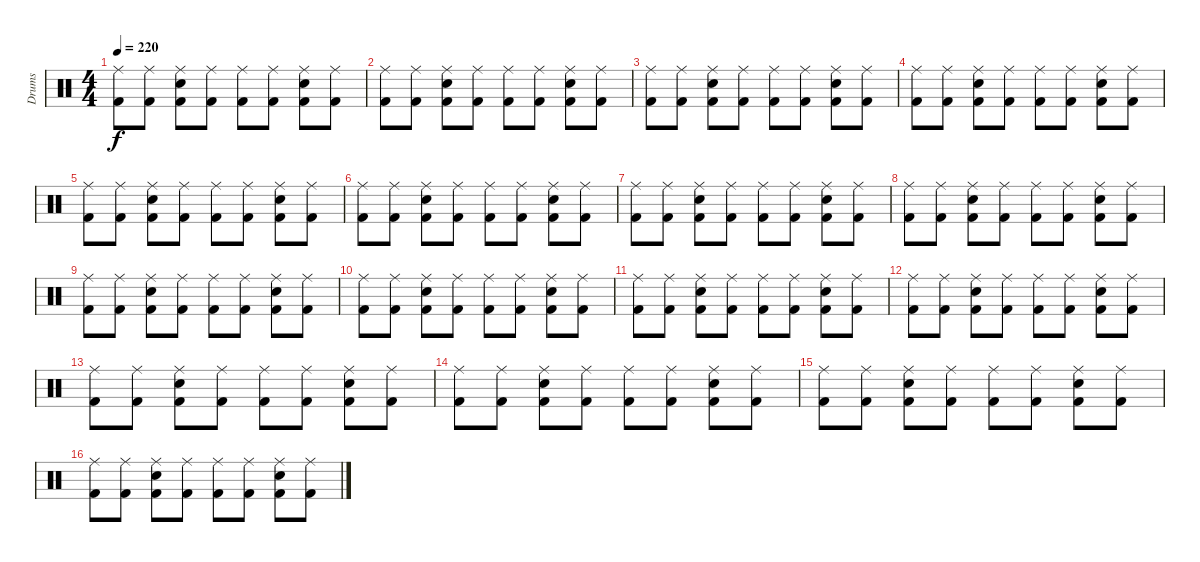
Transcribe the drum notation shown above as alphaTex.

\track ("Drums" "Drums") {instrument percussion}
\staff {score}
\articulation defaults
\ts (4 4)
\tempo 220
\clef neutral
\ks c
("Kick (hit) 2" "Ride (middle)").8{dy f} ("Kick (hit) 2" "Ride (middle)").8 ("Kick (hit) 2" "Snare (hit) 2" "Ride (middle)").8 ("Kick (hit) 2" "Ride (middle)").8 ("Kick (hit) 2" "Ride (middle)").8 ("Kick (hit) 2" "Ride (middle)").8 ("Kick (hit) 2" "Snare (hit) 2" "Ride (middle)").8 ("Kick (hit) 2" "Ride (middle)").8 |
("Kick (hit) 2" "Ride (middle)").8 ("Kick (hit) 2" "Ride (middle)").8 ("Kick (hit) 2" "Snare (hit) 2" "Ride (middle)").8 ("Kick (hit) 2" "Ride (middle)").8 ("Kick (hit) 2" "Ride (middle)").8 ("Kick (hit) 2" "Ride (middle)").8 ("Kick (hit) 2" "Snare (hit) 2" "Ride (middle)").8 ("Kick (hit) 2" "Ride (middle)").8 |
("Kick (hit) 2" "Ride (middle)").8 ("Kick (hit) 2" "Ride (middle)").8 ("Kick (hit) 2" "Snare (hit) 2" "Ride (middle)").8 ("Kick (hit) 2" "Ride (middle)").8 ("Kick (hit) 2" "Ride (middle)").8 ("Kick (hit) 2" "Ride (middle)").8 ("Kick (hit) 2" "Snare (hit) 2" "Ride (middle)").8 ("Kick (hit) 2" "Ride (middle)").8 |
("Kick (hit) 2" "Ride (middle)").8 ("Kick (hit) 2" "Ride (middle)").8 ("Kick (hit) 2" "Snare (hit) 2" "Ride (middle)").8 ("Kick (hit) 2" "Ride (middle)").8 ("Kick (hit) 2" "Ride (middle)").8 ("Kick (hit) 2" "Ride (middle)").8 ("Kick (hit) 2" "Snare (hit) 2" "Ride (middle)").8 ("Kick (hit) 2" "Ride (middle)").8 |
("Kick (hit) 2" "Ride (middle)").8 ("Kick (hit) 2" "Ride (middle)").8 ("Kick (hit) 2" "Snare (hit) 2" "Ride (middle)").8 ("Kick (hit) 2" "Ride (middle)").8 ("Kick (hit) 2" "Ride (middle)").8 ("Kick (hit) 2" "Ride (middle)").8 ("Kick (hit) 2" "Snare (hit) 2" "Ride (middle)").8 ("Kick (hit) 2" "Ride (middle)").8 |
("Kick (hit) 2" "Ride (middle)").8 ("Kick (hit) 2" "Ride (middle)").8 ("Kick (hit) 2" "Snare (hit) 2" "Ride (middle)").8 ("Kick (hit) 2" "Ride (middle)").8 ("Kick (hit) 2" "Ride (middle)").8 ("Kick (hit) 2" "Ride (middle)").8 ("Kick (hit) 2" "Snare (hit) 2" "Ride (middle)").8 ("Kick (hit) 2" "Ride (middle)").8 |
("Kick (hit) 2" "Ride (middle)").8 ("Kick (hit) 2" "Ride (middle)").8 ("Kick (hit) 2" "Snare (hit) 2" "Ride (middle)").8 ("Kick (hit) 2" "Ride (middle)").8 ("Kick (hit) 2" "Ride (middle)").8 ("Kick (hit) 2" "Ride (middle)").8 ("Kick (hit) 2" "Snare (hit) 2" "Ride (middle)").8 ("Kick (hit) 2" "Ride (middle)").8 |
("Kick (hit) 2" "Ride (middle)").8 ("Kick (hit) 2" "Ride (middle)").8 ("Kick (hit) 2" "Snare (hit) 2" "Ride (middle)").8 ("Kick (hit) 2" "Ride (middle)").8 ("Kick (hit) 2" "Ride (middle)").8 ("Kick (hit) 2" "Ride (middle)").8 ("Kick (hit) 2" "Snare (hit) 2" "Ride (middle)").8 ("Kick (hit) 2" "Ride (middle)").8 |
("Kick (hit) 2" "Ride (middle)").8 ("Kick (hit) 2" "Ride (middle)").8 ("Kick (hit) 2" "Snare (hit) 2" "Ride (middle)").8 ("Kick (hit) 2" "Ride (middle)").8 ("Kick (hit) 2" "Ride (middle)").8 ("Kick (hit) 2" "Ride (middle)").8 ("Kick (hit) 2" "Snare (hit) 2" "Ride (middle)").8 ("Kick (hit) 2" "Ride (middle)").8 |
("Kick (hit) 2" "Ride (middle)").8 ("Kick (hit) 2" "Ride (middle)").8 ("Kick (hit) 2" "Snare (hit) 2" "Ride (middle)").8 ("Kick (hit) 2" "Ride (middle)").8 ("Kick (hit) 2" "Ride (middle)").8 ("Kick (hit) 2" "Ride (middle)").8 ("Kick (hit) 2" "Snare (hit) 2" "Ride (middle)").8 ("Kick (hit) 2" "Ride (middle)").8 |
("Kick (hit) 2" "Ride (middle)").8 ("Kick (hit) 2" "Ride (middle)").8 ("Kick (hit) 2" "Snare (hit) 2" "Ride (middle)").8 ("Kick (hit) 2" "Ride (middle)").8 ("Kick (hit) 2" "Ride (middle)").8 ("Kick (hit) 2" "Ride (middle)").8 ("Kick (hit) 2" "Snare (hit) 2" "Ride (middle)").8 ("Kick (hit) 2" "Ride (middle)").8 |
("Kick (hit) 2" "Ride (middle)").8 ("Kick (hit) 2" "Ride (middle)").8 ("Kick (hit) 2" "Snare (hit) 2" "Ride (middle)").8 ("Kick (hit) 2" "Ride (middle)").8 ("Kick (hit) 2" "Ride (middle)").8 ("Kick (hit) 2" "Ride (middle)").8 ("Kick (hit) 2" "Snare (hit) 2" "Ride (middle)").8 ("Kick (hit) 2" "Ride (middle)").8 |
("Kick (hit) 2" "Ride (middle)").8 ("Kick (hit) 2" "Ride (middle)").8 ("Kick (hit) 2" "Snare (hit) 2" "Ride (middle)").8 ("Kick (hit) 2" "Ride (middle)").8 ("Kick (hit) 2" "Ride (middle)").8 ("Kick (hit) 2" "Ride (middle)").8 ("Kick (hit) 2" "Snare (hit) 2" "Ride (middle)").8 ("Kick (hit) 2" "Ride (middle)").8 |
("Kick (hit) 2" "Ride (middle)").8 ("Kick (hit) 2" "Ride (middle)").8 ("Kick (hit) 2" "Snare (hit) 2" "Ride (middle)").8 ("Kick (hit) 2" "Ride (middle)").8 ("Kick (hit) 2" "Ride (middle)").8 ("Kick (hit) 2" "Ride (middle)").8 ("Kick (hit) 2" "Snare (hit) 2" "Ride (middle)").8 ("Kick (hit) 2" "Ride (middle)").8 |
("Kick (hit) 2" "Ride (middle)").8 ("Kick (hit) 2" "Ride (middle)").8 ("Kick (hit) 2" "Snare (hit) 2" "Ride (middle)").8 ("Kick (hit) 2" "Ride (middle)").8 ("Kick (hit) 2" "Ride (middle)").8 ("Kick (hit) 2" "Ride (middle)").8 ("Kick (hit) 2" "Snare (hit) 2" "Ride (middle)").8 ("Kick (hit) 2" "Ride (middle)").8 |
("Kick (hit) 2" "Ride (middle)").8 ("Kick (hit) 2" "Ride (middle)").8 ("Kick (hit) 2" "Snare (hit) 2" "Ride (middle)").8 ("Kick (hit) 2" "Ride (middle)").8 ("Kick (hit) 2" "Ride (middle)").8 ("Kick (hit) 2" "Ride (middle)").8 ("Kick (hit) 2" "Snare (hit) 2" "Ride (middle)").8 ("Kick (hit) 2" "Ride (middle)").8
